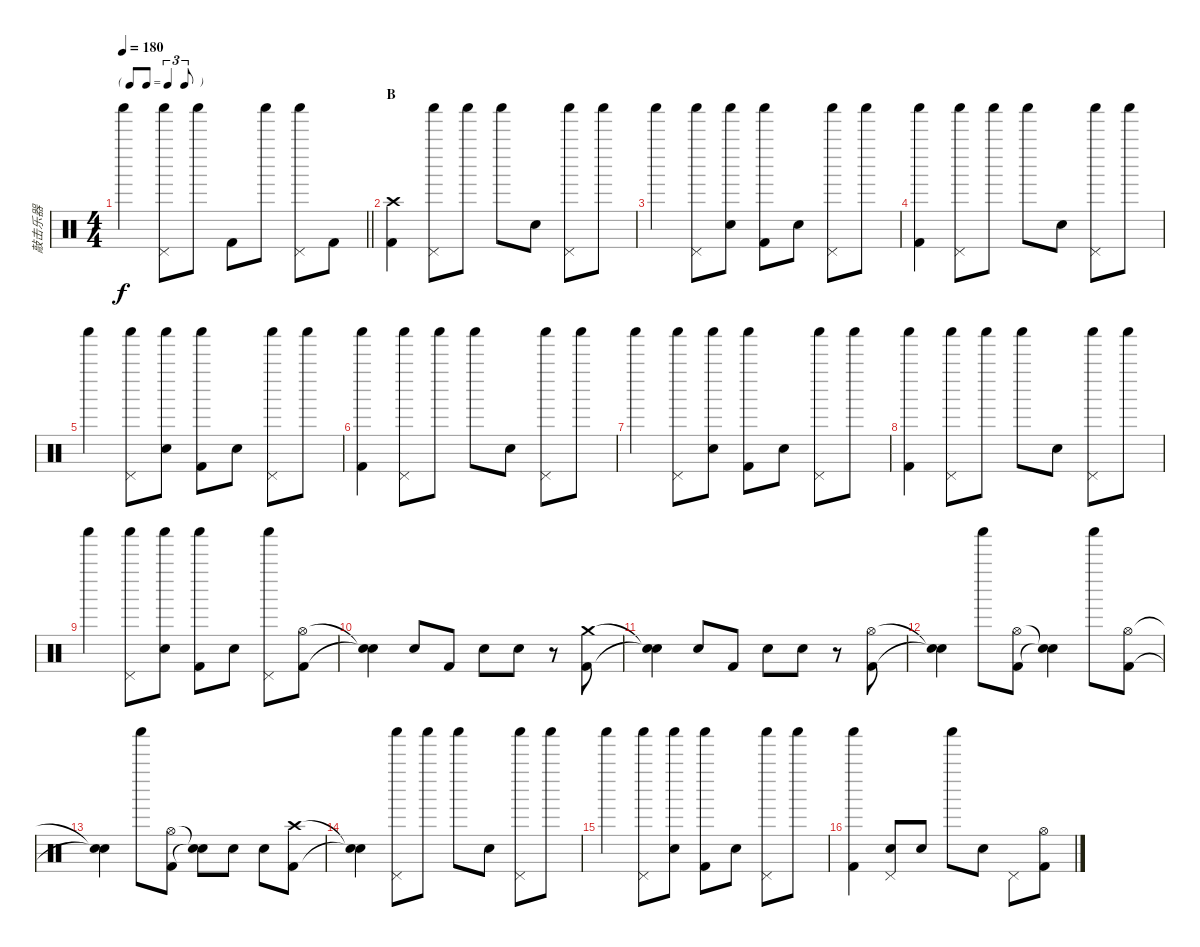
\track ("敲击乐器" "敲击乐器") {instrument percussion}
\staff {score}
\articulation defaults
\ts (4 4)
\tf triplet8th
\tempo 180
\clef neutral
\barLineRight lightlight
\ks c "Shaker (hit)".4{dy f}
("Pedal Hi-Hat (hit)" "Shaker (hit)").8 "Shaker (hit)".8 "Kick (hit) 2".8 "Shaker (hit)".8 ("Pedal Hi-Hat (hit)" "Shaker (hit)").8 "Kick (hit) 2".8 |
\section ("" "B")
("Crash high (hit)" "Kick (hit) 2").4 ("Shaker (hit)" "Pedal Hi-Hat (hit)").8 "Shaker (hit)".8 "Shaker (hit)".8 "Electric Snare (hit)".8 ("Shaker (hit)" "Pedal Hi-Hat (hit)").8 "Shaker (hit)".8 |
"Shaker (hit)".4 ("Shaker (hit)" "Pedal Hi-Hat (hit)").8 ("Shaker (hit)" "Electric Snare (hit)").8 ("Shaker (hit)" "Kick (hit) 2").8 "Electric Snare (hit)".8 ("Shaker (hit)" "Pedal Hi-Hat (hit)").8 "Shaker (hit)".8 |
("Shaker (hit)" "Kick (hit) 2").4 ("Shaker (hit)" "Pedal Hi-Hat (hit)").8 "Shaker (hit)".8 "Shaker (hit)".8 "Electric Snare (hit)".8 ("Shaker (hit)" "Pedal Hi-Hat (hit)").8 "Shaker (hit)".8 |
"Shaker (hit)".4 ("Shaker (hit)" "Pedal Hi-Hat (hit)").8 ("Shaker (hit)" "Electric Snare (hit)").8 ("Shaker (hit)" "Kick (hit) 2").8 "Electric Snare (hit)".8 ("Shaker (hit)" "Pedal Hi-Hat (hit)").8 "Shaker (hit)".8 |
("Shaker (hit)" "Kick (hit) 2").4 ("Shaker (hit)" "Pedal Hi-Hat (hit)").8 "Shaker (hit)".8 "Shaker (hit)".8 "Electric Snare (hit)".8 ("Shaker (hit)" "Pedal Hi-Hat (hit)").8 "Shaker (hit)".8 |
"Shaker (hit)".4 ("Shaker (hit)" "Pedal Hi-Hat (hit)").8 ("Shaker (hit)" "Electric Snare (hit)").8 ("Shaker (hit)" "Kick (hit) 2").8 "Electric Snare (hit)".8 ("Shaker (hit)" "Pedal Hi-Hat (hit)").8 "Shaker (hit)".8 |
("Shaker (hit)" "Kick (hit) 2").4 ("Shaker (hit)" "Pedal Hi-Hat (hit)").8 "Shaker (hit)".8 "Shaker (hit)".8 "Electric Snare (hit)".8 ("Shaker (hit)" "Pedal Hi-Hat (hit)").8 "Shaker (hit)".8 |
"Shaker (hit)".4 ("Shaker (hit)" "Pedal Hi-Hat (hit)").8 ("Shaker (hit)" "Electric Snare (hit)").8 ("Shaker (hit)" "Kick (hit) 2").8 "Electric Snare (hit)".8 ("Shaker (hit)" "Pedal Hi-Hat (hit)").8 ("Hi-Hat (open)" "Kick (hit) 2").8 |
("Snare (hit)"{t} "Snare (hit)"{t}).4 "Electric Snare (hit)".8 "Kick (hit) 2".8 "Electric Snare (hit)".8 "Electric Snare (hit)".8 r.8 ("Crash medium (hit)" "Kick (hit) 2").8 |
("Snare (hit)"{t} "Snare (hit)"{t}).4 "Electric Snare (hit)".8 "Kick (hit) 2".8 "Electric Snare (hit)".8 "Electric Snare (hit)".8 r.8 ("Hi-Hat (open)" "Kick (hit) 2").8 |
("Snare (hit)"{t} "Snare (hit)"{t}).4 "Shaker (hit)".8 ("Hi-Hat (open)" "Kick (hit) 2").8 ("Snare (hit)"{t} "Snare (hit)"{t}).4 "Shaker (hit)".8 ("Hi-Hat (open)" "Kick (hit) 2").8 |
("Snare (hit)"{t} "Snare (hit)"{t}).4 "Shaker (hit)".8 ("Hi-Hat (open)" "Kick (hit) 2").8 ("Snare (hit)"{t} "Snare (hit)"{t}).8 "Electric Snare (hit)".8 "Electric Snare (hit)".8 ("Crash high (hit)" "Kick (hit) 2").8 |
("Snare (hit)"{t} "Snare (hit)"{t}).4 ("Shaker (hit)" "Pedal Hi-Hat (hit)").8 "Shaker (hit)".8 "Shaker (hit)".8 "Electric Snare (hit)".8 ("Shaker (hit)" "Pedal Hi-Hat (hit)").8 "Shaker (hit)".8 |
"Shaker (hit)".4 ("Shaker (hit)" "Pedal Hi-Hat (hit)").8 ("Shaker (hit)" "Electric Snare (hit)").8 ("Shaker (hit)" "Kick (hit) 2").8 "Electric Snare (hit)".8 ("Shaker (hit)" "Pedal Hi-Hat (hit)").8 "Shaker (hit)".8 |
("Shaker (hit)" "Kick (hit) 2").4 ("Pedal Hi-Hat (hit)" "Electric Snare (hit)").8 "Electric Snare (hit)".8 "Shaker (hit)".8 "Electric Snare (hit)".8 "Pedal Hi-Hat (hit)".8 ("Hi-Hat (open)" "Kick (hit) 2").8
